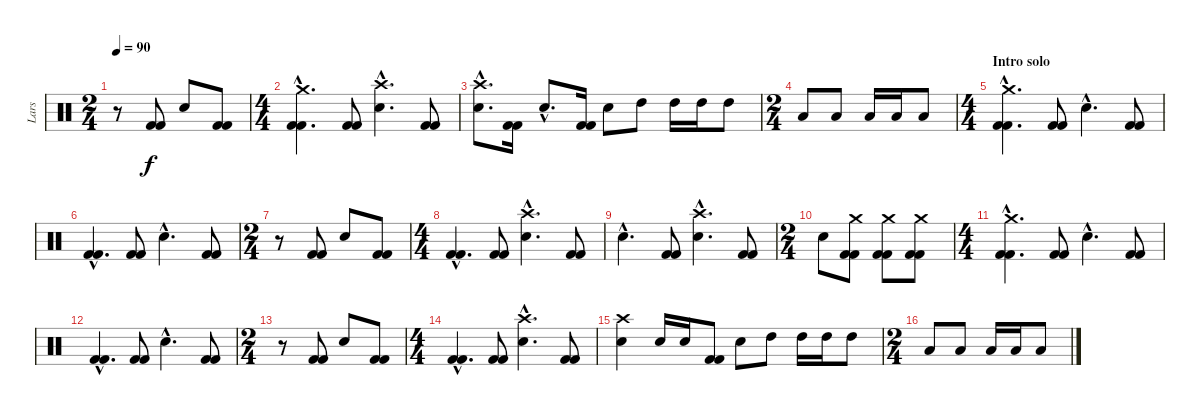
\track ("Lars" "Lars") {instrument percussion}
\staff {score}
\articulation defaults
\ts (2 4)
\tempo 90
\clef neutral
\ks c
r.8{dy f} ("Kick (hit) 2" "Kick (hit) 2").8 "Snare (hit) 2".8 ("Kick (hit) 2" "Kick (hit) 2").8 |
\ts (4 4)
("Crash medium (hit)"{hac} "Kick (hit) 2"{hac} "Kick (hit) 2"{hac}).4{d} ("Kick (hit) 2" "Kick (hit) 2").8 ("Snare (hit) 2"{hac} "Crash high (hit)"{hac}).4{d} ("Kick (hit) 2" "Kick (hit) 2").8 |
("Snare (hit) 2"{hac} "Crash high (hit)"{hac}).8{d} ("Kick (hit) 2" "Kick (hit) 2").16 "Snare (hit) 2"{hac}.8{d} ("Kick (hit) 2" "Kick (hit) 2").16 "Snare (hit) 2".8 "High Tom (hit)".8 "High Tom (hit)".16 "High Tom (hit)".16 "High Tom (hit)".8 |
\ts (2 4)
"Low Floor Tom (hit)".8 "Low Floor Tom (hit)".8 "Low Floor Tom (hit)".16 "Low Floor Tom (hit)".16 "Low Floor Tom (hit)".8 |
\ts (4 4)
\section ("" "Intro solo")
("Crash medium (hit)"{hac} "Kick (hit) 2"{hac} "Kick (hit) 2"{hac}).4{d} ("Kick (hit) 2" "Kick (hit) 2").8 "Snare (hit) 2"{hac}.4{d} ("Kick (hit) 2" "Kick (hit) 2").8 |
("Kick (hit) 2"{hac} "Kick (hit) 2"{hac}).4{d} ("Kick (hit) 2" "Kick (hit) 2").8 "Snare (hit) 2"{hac}.4{d} ("Kick (hit) 2" "Kick (hit) 2").8 |
\ts (2 4)
r.8 ("Kick (hit) 2" "Kick (hit) 2").8 "Snare (hit) 2".8 ("Kick (hit) 2" "Kick (hit) 2").8 |
\ts (4 4)
("Kick (hit) 2"{hac} "Kick (hit) 2"{hac}).4{d} ("Kick (hit) 2" "Kick (hit) 2").8 ("Snare (hit) 2"{hac} "Crash high (hit)"{hac}).4{d} ("Kick (hit) 2" "Kick (hit) 2").8 |
"Snare (hit) 2"{hac}.4{d} ("Kick (hit) 2" "Kick (hit) 2").8 ("Snare (hit) 2"{hac} "Crash high (hit)"{hac}).4{d} ("Kick (hit) 2" "Kick (hit) 2").8 |
\ts (2 4)
"Snare (hit) 2".8 ("Crash medium (hit)" "Kick (hit) 2" "Kick (hit) 2").8 ("Crash medium (hit)" "Kick (hit) 2" "Kick (hit) 2").8 ("Crash medium (hit)" "Kick (hit) 2" "Kick (hit) 2").8 |
\ts (4 4)
("Crash medium (hit)"{hac} "Kick (hit) 2"{hac} "Kick (hit) 2"{hac}).4{d} ("Kick (hit) 2" "Kick (hit) 2").8 "Snare (hit) 2"{hac}.4{d} ("Kick (hit) 2" "Kick (hit) 2").8 |
("Kick (hit) 2"{hac} "Kick (hit) 2"{hac}).4{d} ("Kick (hit) 2" "Kick (hit) 2").8 "Snare (hit) 2"{hac}.4{d} ("Kick (hit) 2" "Kick (hit) 2").8 |
\ts (2 4)
r.8 ("Kick (hit) 2" "Kick (hit) 2").8 "Snare (hit) 2".8 ("Kick (hit) 2" "Kick (hit) 2").8 |
\ts (4 4)
("Kick (hit) 2"{hac} "Kick (hit) 2"{hac}).4{d} ("Kick (hit) 2" "Kick (hit) 2").8 ("Snare (hit) 2"{hac} "Crash high (hit)"{hac}).4{d} ("Kick (hit) 2" "Kick (hit) 2").8 |
("Snare (hit) 2" "Crash high (hit)").4 "Snare (hit) 2".16 "Snare (hit) 2".16 ("Kick (hit) 2" "Kick (hit) 2").8 "Snare (hit) 2".8 "High Tom (hit)".8 "High Tom (hit)".16 "High Tom (hit)".16 "High Tom (hit)".8 |
\ts (2 4)
"Low Floor Tom (hit)".8 "Low Floor Tom (hit)".8 "Low Floor Tom (hit)".16 "Low Floor Tom (hit)".16 "Low Floor Tom (hit)".8
